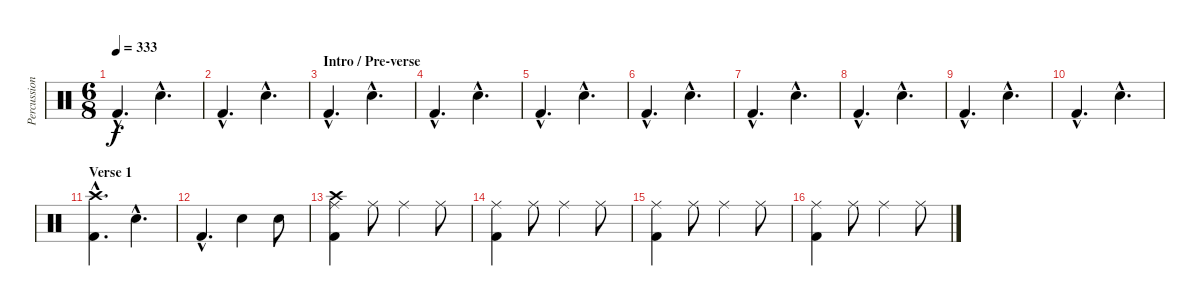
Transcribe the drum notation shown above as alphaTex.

\track ("Percussion" "Percussion") {instrument percussion}
\staff {score}
\articulation defaults
\ts (6 8)
\tempo 333
\clef neutral
\ks c "Kick (hit) 2"{hac}.4{d dy f} "Hand Clap (hit)"{hac}.4{d}
|
"Kick (hit) 2"{hac}.4{d} "Hand Clap (hit)"{hac}.4{d} |
\section ("" "Intro / Pre-verse")
"Kick (hit) 2"{hac}.4{d} "Hand Clap (hit)"{hac}.4{d} |
"Kick (hit) 2"{hac}.4{d} "Hand Clap (hit)"{hac}.4{d} |
"Kick (hit) 2"{hac}.4{d} "Hand Clap (hit)"{hac}.4{d} |
"Kick (hit) 2"{hac}.4{d} "Hand Clap (hit)"{hac}.4{d} |
"Kick (hit) 2"{hac}.4{d} "Hand Clap (hit)"{hac}.4{d} |
"Kick (hit) 2"{hac}.4{d} "Hand Clap (hit)"{hac}.4{d} |
"Kick (hit) 2"{hac}.4{d} "Hand Clap (hit)"{hac}.4{d} |
"Kick (hit) 2"{hac}.4{d} "Hand Clap (hit)"{hac}.4{d} |
\section ("" "Verse 1")
("Crash high (hit)"{hac} "Kick (hit) 2"{hac}).4{d} "Snare (hit) 2"{hac}.4{d} |
"Kick (hit) 2"{hac}.4{d} "Electric Snare (hit)".4 "Electric Snare (hit)".8 |
("Crash high (hit)" "Ride (middle)" "Kick (hit) 2").4 "Ride (middle)".8 "Ride (middle)".4 "Ride (middle)".8 |
("Ride (middle)" "Kick (hit) 2").4 "Ride (middle)".8 "Ride (middle)".4 "Ride (middle)".8 |
("Ride (middle)" "Kick (hit) 2").4 "Ride (middle)".8 "Ride (middle)".4 "Ride (middle)".8 |
("Ride (middle)" "Kick (hit) 2").4 "Ride (middle)".8 "Ride (middle)".4 "Ride (middle)".8
